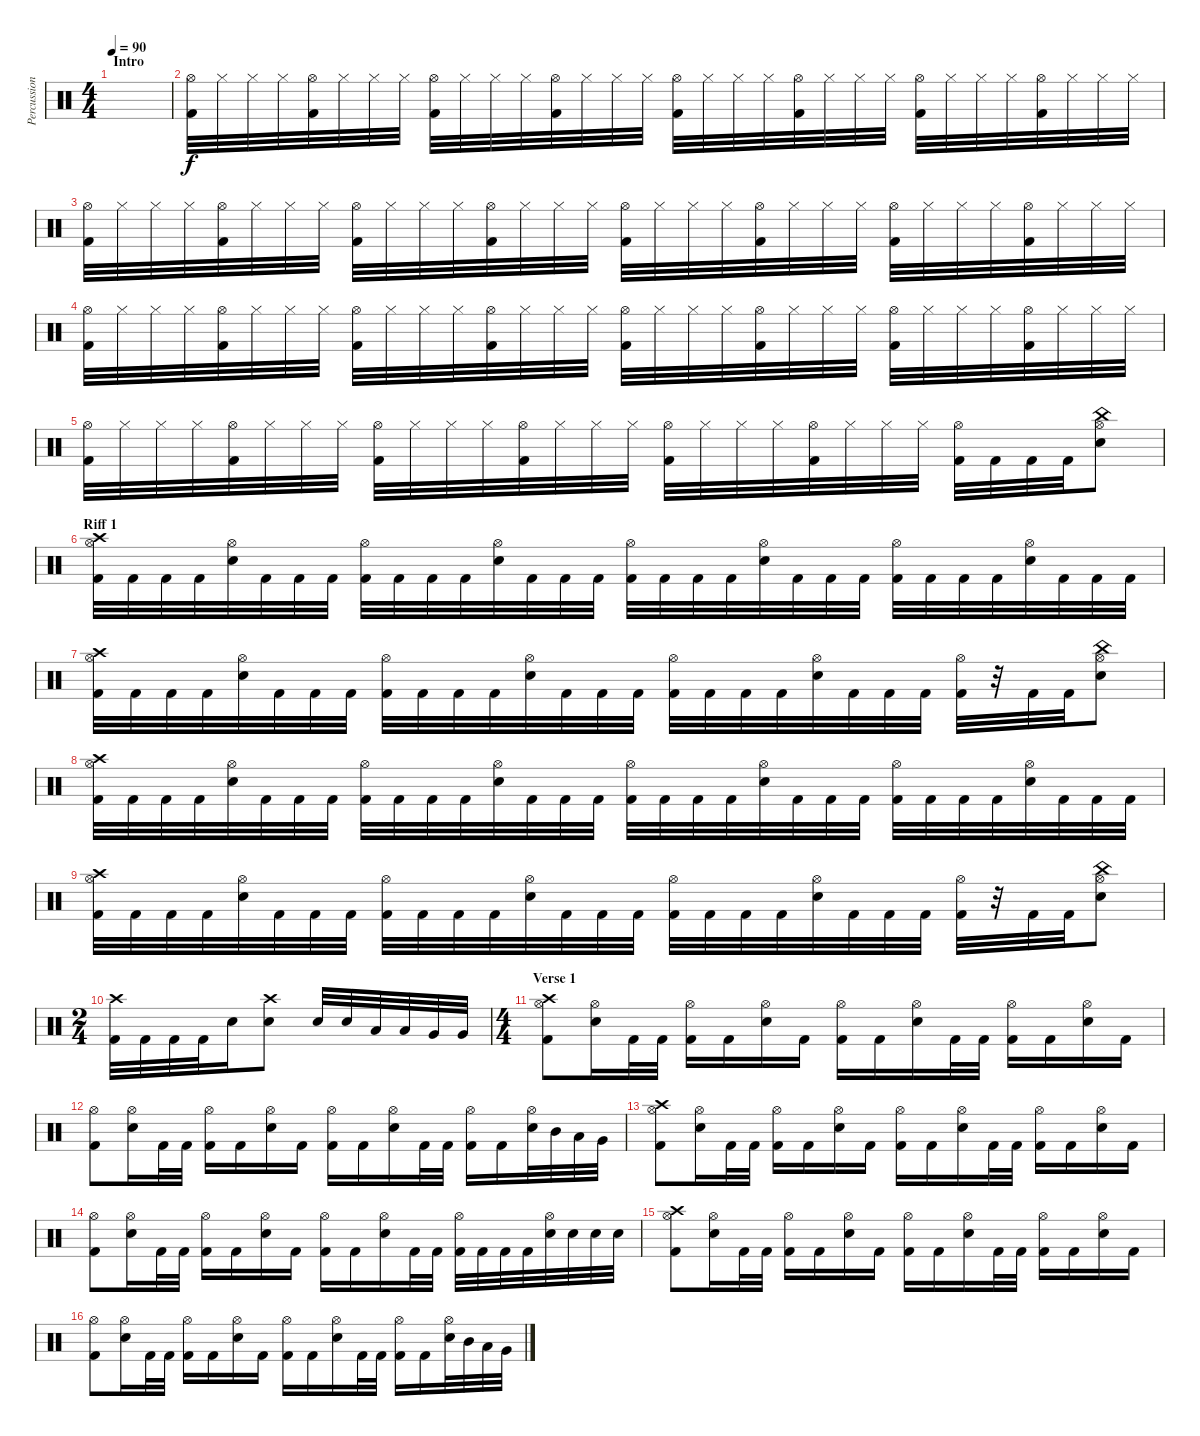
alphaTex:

\track ("Percussions" "Percussion") {instrument percussion}
\staff {score}
\articulation defaults
\ts (4 4)
\section ("" "Intro")
\tempo 90
\clef neutral
\ks c
|
("Hi-Hat (open)" "Kick (hit) 2").32{volume 16} "Hi-Hat (closed)".32 "Hi-Hat (closed)".32 "Hi-Hat (closed)".32 ("Hi-Hat (open)" "Kick (hit) 2").32 "Hi-Hat (closed)".32 "Hi-Hat (closed)".32 "Hi-Hat (closed)".32 ("Hi-Hat (open)" "Kick (hit) 2").32 "Hi-Hat (closed)".32 "Hi-Hat (closed)".32 "Hi-Hat (closed)".32 ("Hi-Hat (open)" "Kick (hit) 2").32 "Hi-Hat (closed)".32 "Hi-Hat (closed)".32 "Hi-Hat (closed)".32 ("Hi-Hat (open)" "Kick (hit) 2").32 "Hi-Hat (closed)".32 "Hi-Hat (closed)".32 "Hi-Hat (closed)".32 ("Hi-Hat (open)" "Kick (hit) 2").32 "Hi-Hat (closed)".32 "Hi-Hat (closed)".32 "Hi-Hat (closed)".32 ("Hi-Hat (open)" "Kick (hit) 2").32 "Hi-Hat (closed)".32 "Hi-Hat (closed)".32 "Hi-Hat (closed)".32 ("Hi-Hat (open)" "Kick (hit) 2").32 "Hi-Hat (closed)".32 "Hi-Hat (closed)".32 "Hi-Hat (closed)".32 |
("Hi-Hat (open)" "Kick (hit) 2").32 "Hi-Hat (closed)".32 "Hi-Hat (closed)".32 "Hi-Hat (closed)".32 ("Hi-Hat (open)" "Kick (hit) 2").32 "Hi-Hat (closed)".32 "Hi-Hat (closed)".32 "Hi-Hat (closed)".32 ("Hi-Hat (open)" "Kick (hit) 2").32 "Hi-Hat (closed)".32 "Hi-Hat (closed)".32 "Hi-Hat (closed)".32 ("Hi-Hat (open)" "Kick (hit) 2").32 "Hi-Hat (closed)".32 "Hi-Hat (closed)".32 "Hi-Hat (closed)".32 ("Hi-Hat (open)" "Kick (hit) 2").32 "Hi-Hat (closed)".32 "Hi-Hat (closed)".32 "Hi-Hat (closed)".32 ("Hi-Hat (open)" "Kick (hit) 2").32 "Hi-Hat (closed)".32 "Hi-Hat (closed)".32 "Hi-Hat (closed)".32 ("Hi-Hat (open)" "Kick (hit) 2").32 "Hi-Hat (closed)".32 "Hi-Hat (closed)".32 "Hi-Hat (closed)".32 ("Hi-Hat (open)" "Kick (hit) 2").32 "Hi-Hat (closed)".32 "Hi-Hat (closed)".32 "Hi-Hat (closed)".32 |
("Hi-Hat (open)" "Kick (hit) 2").32 "Hi-Hat (closed)".32 "Hi-Hat (closed)".32 "Hi-Hat (closed)".32 ("Hi-Hat (open)" "Kick (hit) 2").32 "Hi-Hat (closed)".32 "Hi-Hat (closed)".32 "Hi-Hat (closed)".32 ("Hi-Hat (open)" "Kick (hit) 2").32 "Hi-Hat (closed)".32 "Hi-Hat (closed)".32 "Hi-Hat (closed)".32 ("Hi-Hat (open)" "Kick (hit) 2").32 "Hi-Hat (closed)".32 "Hi-Hat (closed)".32 "Hi-Hat (closed)".32 ("Hi-Hat (open)" "Kick (hit) 2").32 "Hi-Hat (closed)".32 "Hi-Hat (closed)".32 "Hi-Hat (closed)".32 ("Hi-Hat (open)" "Kick (hit) 2").32 "Hi-Hat (closed)".32 "Hi-Hat (closed)".32 "Hi-Hat (closed)".32 ("Hi-Hat (open)" "Kick (hit) 2").32 "Hi-Hat (closed)".32 "Hi-Hat (closed)".32 "Hi-Hat (closed)".32 ("Hi-Hat (open)" "Kick (hit) 2").32 "Hi-Hat (closed)".32 "Hi-Hat (closed)".32 "Hi-Hat (closed)".32 |
("Hi-Hat (open)" "Kick (hit) 2").32 "Hi-Hat (closed)".32 "Hi-Hat (closed)".32 "Hi-Hat (closed)".32 ("Hi-Hat (open)" "Kick (hit) 2").32 "Hi-Hat (closed)".32 "Hi-Hat (closed)".32 "Hi-Hat (closed)".32 ("Hi-Hat (open)" "Kick (hit) 2").32 "Hi-Hat (closed)".32 "Hi-Hat (closed)".32 "Hi-Hat (closed)".32 ("Hi-Hat (open)" "Kick (hit) 2").32 "Hi-Hat (closed)".32 "Hi-Hat (closed)".32 "Hi-Hat (closed)".32 ("Hi-Hat (open)" "Kick (hit) 2").32 "Hi-Hat (closed)".32 "Hi-Hat (closed)".32 "Hi-Hat (closed)".32 ("Hi-Hat (open)" "Kick (hit) 2").32 "Hi-Hat (closed)".32 "Hi-Hat (closed)".32 "Hi-Hat (closed)".32 ("Hi-Hat (open)" "Kick (hit) 2").32 "Kick (hit) 2".32 "Kick (hit) 2".32 "Kick (hit) 2".32 ("China (hit)" "Hi-Hat (open)" "Electric Snare (hit)").8 |
\section ("" "Riff 1")
("Crash high (hit)" "Hi-Hat (open)" "Kick (hit) 2").32 "Kick (hit) 2".32 "Kick (hit) 2".32 "Kick (hit) 2".32 ("Hi-Hat (open)" "Electric Snare (hit)").32 "Kick (hit) 2".32 "Kick (hit) 2".32 "Kick (hit) 2".32 ("Hi-Hat (open)" "Kick (hit) 2").32 "Kick (hit) 2".32 "Kick (hit) 2".32 "Kick (hit) 2".32 ("Hi-Hat (open)" "Electric Snare (hit)").32 "Kick (hit) 2".32 "Kick (hit) 2".32 "Kick (hit) 2".32 ("Hi-Hat (open)" "Kick (hit) 2").32 "Kick (hit) 2".32 "Kick (hit) 2".32 "Kick (hit) 2".32 ("Hi-Hat (open)" "Electric Snare (hit)").32 "Kick (hit) 2".32 "Kick (hit) 2".32 "Kick (hit) 2".32 ("Hi-Hat (open)" "Kick (hit) 2").32 "Kick (hit) 2".32 "Kick (hit) 2".32 "Kick (hit) 2".32 ("Hi-Hat (open)" "Electric Snare (hit)").32 "Kick (hit) 2".32 "Kick (hit) 2".32 "Kick (hit) 2".32 |
("Crash high (hit)" "Hi-Hat (open)" "Kick (hit) 2").32 "Kick (hit) 2".32 "Kick (hit) 2".32 "Kick (hit) 2".32 ("Hi-Hat (open)" "Electric Snare (hit)").32 "Kick (hit) 2".32 "Kick (hit) 2".32 "Kick (hit) 2".32 ("Hi-Hat (open)" "Kick (hit) 2").32 "Kick (hit) 2".32 "Kick (hit) 2".32 "Kick (hit) 2".32 ("Hi-Hat (open)" "Electric Snare (hit)").32 "Kick (hit) 2".32 "Kick (hit) 2".32 "Kick (hit) 2".32 ("Hi-Hat (open)" "Kick (hit) 2").32 "Kick (hit) 2".32 "Kick (hit) 2".32 "Kick (hit) 2".32 ("Hi-Hat (open)" "Electric Snare (hit)").32 "Kick (hit) 2".32 "Kick (hit) 2".32 "Kick (hit) 2".32 ("Hi-Hat (open)" "Kick (hit) 2").32 r.32 "Kick (hit) 2".32 "Kick (hit) 2".32 ("China (hit)" "Hi-Hat (open)" "Electric Snare (hit)").8 |
("Crash high (hit)" "Hi-Hat (open)" "Kick (hit) 2").32 "Kick (hit) 2".32 "Kick (hit) 2".32 "Kick (hit) 2".32 ("Hi-Hat (open)" "Electric Snare (hit)").32 "Kick (hit) 2".32 "Kick (hit) 2".32 "Kick (hit) 2".32 ("Hi-Hat (open)" "Kick (hit) 2").32 "Kick (hit) 2".32 "Kick (hit) 2".32 "Kick (hit) 2".32 ("Hi-Hat (open)" "Electric Snare (hit)").32 "Kick (hit) 2".32 "Kick (hit) 2".32 "Kick (hit) 2".32 ("Hi-Hat (open)" "Kick (hit) 2").32 "Kick (hit) 2".32 "Kick (hit) 2".32 "Kick (hit) 2".32 ("Hi-Hat (open)" "Electric Snare (hit)").32 "Kick (hit) 2".32 "Kick (hit) 2".32 "Kick (hit) 2".32 ("Hi-Hat (open)" "Kick (hit) 2").32 "Kick (hit) 2".32 "Kick (hit) 2".32 "Kick (hit) 2".32 ("Hi-Hat (open)" "Electric Snare (hit)").32 "Kick (hit) 2".32 "Kick (hit) 2".32 "Kick (hit) 2".32 |
("Crash high (hit)" "Hi-Hat (open)" "Kick (hit) 2").32 "Kick (hit) 2".32 "Kick (hit) 2".32 "Kick (hit) 2".32 ("Hi-Hat (open)" "Electric Snare (hit)").32 "Kick (hit) 2".32 "Kick (hit) 2".32 "Kick (hit) 2".32 ("Hi-Hat (open)" "Kick (hit) 2").32 "Kick (hit) 2".32 "Kick (hit) 2".32 "Kick (hit) 2".32 ("Hi-Hat (open)" "Electric Snare (hit)").32 "Kick (hit) 2".32 "Kick (hit) 2".32 "Kick (hit) 2".32 ("Hi-Hat (open)" "Kick (hit) 2").32 "Kick (hit) 2".32 "Kick (hit) 2".32 "Kick (hit) 2".32 ("Hi-Hat (open)" "Electric Snare (hit)").32 "Kick (hit) 2".32 "Kick (hit) 2".32 "Kick (hit) 2".32 ("Hi-Hat (open)" "Kick (hit) 2").32 r.32 "Kick (hit) 2".32 "Kick (hit) 2".32 ("China (hit)" "Hi-Hat (open)" "Electric Snare (hit)").8 |
\ts (2 4)
("Crash high (hit)" "Kick (hit) 2").32 "Kick (hit) 2".32 "Kick (hit) 2".32 "Kick (hit) 2".32 "Electric Snare (hit)".16 ("Crash high (hit)" "Electric Snare (hit)").8 "Electric Snare (hit)".32 "Electric Snare (hit)".32 "Low Tom (hit)".32 "Low Tom (hit)".32 "Very Low Tom (hit)".32 "Very Low Tom (hit)".32 |
\ts (4 4)
\section ("" "Verse 1")
("Crash high (hit)" "Hi-Hat (open)" "Kick (hit) 2").8 ("Hi-Hat (open)" "Electric Snare (hit)").16 "Kick (hit) 2".32 "Kick (hit) 2".32 ("Hi-Hat (open)" "Kick (hit) 2").16 "Kick (hit) 2".16 ("Hi-Hat (open)" "Electric Snare (hit)").16 "Kick (hit) 2".16 ("Hi-Hat (open)" "Kick (hit) 2").16 "Kick (hit) 2".16 ("Hi-Hat (open)" "Electric Snare (hit)").16 "Kick (hit) 2".32 "Kick (hit) 2".32 ("Hi-Hat (open)" "Kick (hit) 2").16 "Kick (hit) 2".16 ("Hi-Hat (open)" "Electric Snare (hit)").16 "Kick (hit) 2".16 |
("Hi-Hat (open)" "Kick (hit) 2").8 ("Hi-Hat (open)" "Electric Snare (hit)").16 "Kick (hit) 2".32 "Kick (hit) 2".32 ("Hi-Hat (open)" "Kick (hit) 2").16 "Kick (hit) 2".16 ("Hi-Hat (open)" "Electric Snare (hit)").16 "Kick (hit) 2".16 ("Hi-Hat (open)" "Kick (hit) 2").16 "Kick (hit) 2".16 ("Hi-Hat (open)" "Electric Snare (hit)").16 "Kick (hit) 2".32 "Kick (hit) 2".32 ("Hi-Hat (open)" "Kick (hit) 2").16 "Kick (hit) 2".16 ("Hi-Hat (open)" "Electric Snare (hit)").32 "Mid Tom (hit)".32 "Low Tom (hit)".32 "Very Low Tom (hit)".32 |
("Crash high (hit)" "Hi-Hat (open)" "Kick (hit) 2").8 ("Hi-Hat (open)" "Electric Snare (hit)").16 "Kick (hit) 2".32 "Kick (hit) 2".32 ("Hi-Hat (open)" "Kick (hit) 2").16 "Kick (hit) 2".16 ("Hi-Hat (open)" "Electric Snare (hit)").16 "Kick (hit) 2".16 ("Hi-Hat (open)" "Kick (hit) 2").16 "Kick (hit) 2".16 ("Hi-Hat (open)" "Electric Snare (hit)").16 "Kick (hit) 2".32 "Kick (hit) 2".32 ("Hi-Hat (open)" "Kick (hit) 2").16 "Kick (hit) 2".16 ("Hi-Hat (open)" "Electric Snare (hit)").16 "Kick (hit) 2".16 |
("Hi-Hat (open)" "Kick (hit) 2").8 ("Hi-Hat (open)" "Electric Snare (hit)").16 "Kick (hit) 2".32 "Kick (hit) 2".32 ("Hi-Hat (open)" "Kick (hit) 2").16 "Kick (hit) 2".16 ("Hi-Hat (open)" "Electric Snare (hit)").16 "Kick (hit) 2".16 ("Hi-Hat (open)" "Kick (hit) 2").16 "Kick (hit) 2".16 ("Hi-Hat (open)" "Electric Snare (hit)").16 "Kick (hit) 2".32 "Kick (hit) 2".32 ("Hi-Hat (open)" "Kick (hit) 2").32 "Kick (hit) 2".32 "Kick (hit) 2".32 "Kick (hit) 2".32 ("Hi-Hat (open)" "Electric Snare (hit)").32 "Electric Snare (hit)".32 "Electric Snare (hit)".32 "Electric Snare (hit)".32 |
("Crash high (hit)" "Hi-Hat (open)" "Kick (hit) 2").8 ("Hi-Hat (open)" "Electric Snare (hit)").16 "Kick (hit) 2".32 "Kick (hit) 2".32 ("Hi-Hat (open)" "Kick (hit) 2").16 "Kick (hit) 2".16 ("Hi-Hat (open)" "Electric Snare (hit)").16 "Kick (hit) 2".16 ("Hi-Hat (open)" "Kick (hit) 2").16 "Kick (hit) 2".16 ("Hi-Hat (open)" "Electric Snare (hit)").16 "Kick (hit) 2".32 "Kick (hit) 2".32 ("Hi-Hat (open)" "Kick (hit) 2").16 "Kick (hit) 2".16 ("Hi-Hat (open)" "Electric Snare (hit)").16 "Kick (hit) 2".16 |
("Hi-Hat (open)" "Kick (hit) 2").8 ("Hi-Hat (open)" "Electric Snare (hit)").16 "Kick (hit) 2".32 "Kick (hit) 2".32 ("Hi-Hat (open)" "Kick (hit) 2").16 "Kick (hit) 2".16 ("Hi-Hat (open)" "Electric Snare (hit)").16 "Kick (hit) 2".16 ("Hi-Hat (open)" "Kick (hit) 2").16 "Kick (hit) 2".16 ("Hi-Hat (open)" "Electric Snare (hit)").16 "Kick (hit) 2".32 "Kick (hit) 2".32 ("Hi-Hat (open)" "Kick (hit) 2").16 "Kick (hit) 2".16 ("Hi-Hat (open)" "Electric Snare (hit)").32 "Mid Tom (hit)".32 "Low Tom (hit)".32 "Very Low Tom (hit)".32
